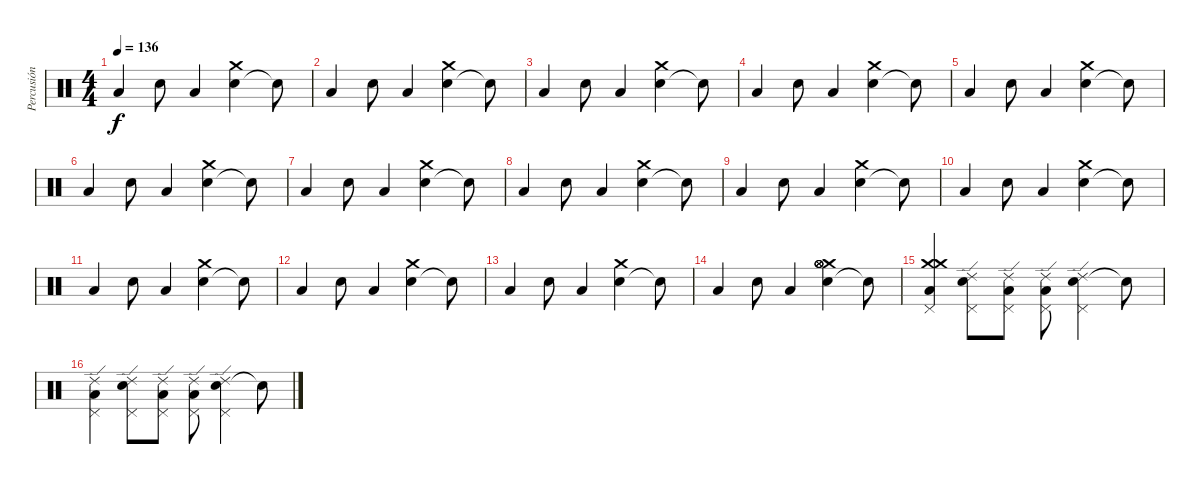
\track ("Percusión" "Percusión") {instrument percussion}
\staff {score}
\articulation defaults
\ts (4 4)
\tempo 136
\clef neutral
\ks c "Low Tom (hit)".4{dy f} "Electric Snare (hit)".8 "Low Tom (hit)".4
("Electric Snare (hit)" "Crash medium (hit)").4 "Snare (hit)"{t}.8 |
"Low Tom (hit)".4 "Electric Snare (hit)".8 "Low Tom (hit)".4 ("Electric Snare (hit)" "Crash medium (hit)").4 "Snare (hit)"{t}.8 |
"Low Tom (hit)".4 "Electric Snare (hit)".8 "Low Tom (hit)".4 ("Electric Snare (hit)" "Crash medium (hit)").4 "Snare (hit)"{t}.8 |
"Low Tom (hit)".4 "Electric Snare (hit)".8 "Low Tom (hit)".4 ("Electric Snare (hit)" "Crash medium (hit)").4 "Snare (hit)"{t}.8 |
"Low Tom (hit)".4 "Electric Snare (hit)".8 "Low Tom (hit)".4 ("Electric Snare (hit)" "Crash medium (hit)").4 "Snare (hit)"{t}.8 |
"Low Tom (hit)".4 "Electric Snare (hit)".8 "Low Tom (hit)".4 ("Electric Snare (hit)" "Crash medium (hit)").4 "Snare (hit)"{t}.8 |
"Low Tom (hit)".4 "Electric Snare (hit)".8 "Low Tom (hit)".4 ("Electric Snare (hit)" "Crash medium (hit)").4 "Snare (hit)"{t}.8 |
"Low Tom (hit)".4 "Electric Snare (hit)".8 "Low Tom (hit)".4 ("Electric Snare (hit)" "Crash medium (hit)").4 "Snare (hit)"{t}.8 |
"Low Tom (hit)".4 "Electric Snare (hit)".8 "Low Tom (hit)".4 ("Electric Snare (hit)" "Crash medium (hit)").4 "Snare (hit)"{t}.8 |
"Low Tom (hit)".4 "Electric Snare (hit)".8 "Low Tom (hit)".4 ("Electric Snare (hit)" "Crash medium (hit)").4 "Snare (hit)"{t}.8 |
"Low Tom (hit)".4 "Electric Snare (hit)".8 "Low Tom (hit)".4 ("Electric Snare (hit)" "Crash medium (hit)").4 "Snare (hit)"{t}.8 |
"Low Tom (hit)".4 "Electric Snare (hit)".8 "Low Tom (hit)".4 ("Electric Snare (hit)" "Crash medium (hit)").4 "Snare (hit)"{t}.8 |
"Low Tom (hit)".4 "Electric Snare (hit)".8 "Low Tom (hit)".4 ("Electric Snare (hit)" "Crash medium (hit)").4 "Snare (hit)"{t}.8 |
"Low Tom (hit)".4 "Electric Snare (hit)".8 "Low Tom (hit)".4 ("Electric Snare (hit)" "Crash medium (hit)" "Hi-Hat (open)" "Hi-Hat (open)" "Hi-Hat (open)" "Hi-Hat (open)").4 "Snare (hit)"{t}.8 |
("Low Tom (hit)" "Pedal Hi-Hat (hit)" "Crash medium (hit)" "Crash medium (hit)").4 ("Electric Snare (hit)" "Pedal Hi-Hat (hit)" "Ride (edge) 2").8 ("Low Tom (hit)" "Pedal Hi-Hat (hit)" "Ride (edge) 2").8 ("Low Tom (hit)" "Pedal Hi-Hat (hit)" "Ride (edge) 2").8 ("Electric Snare (hit)" "Pedal Hi-Hat (hit)" "Ride (edge) 2").4 "Snare (hit)"{t}.8 |
("Low Tom (hit)" "Pedal Hi-Hat (hit)" "Ride (edge) 2").4 ("Electric Snare (hit)" "Pedal Hi-Hat (hit)" "Ride (edge) 2").8 ("Low Tom (hit)" "Pedal Hi-Hat (hit)" "Ride (edge) 2").8 ("Low Tom (hit)" "Pedal Hi-Hat (hit)" "Ride (edge) 2").8 ("Electric Snare (hit)" "Pedal Hi-Hat (hit)" "Ride (edge) 2").4 "Snare (hit)"{t}.8
